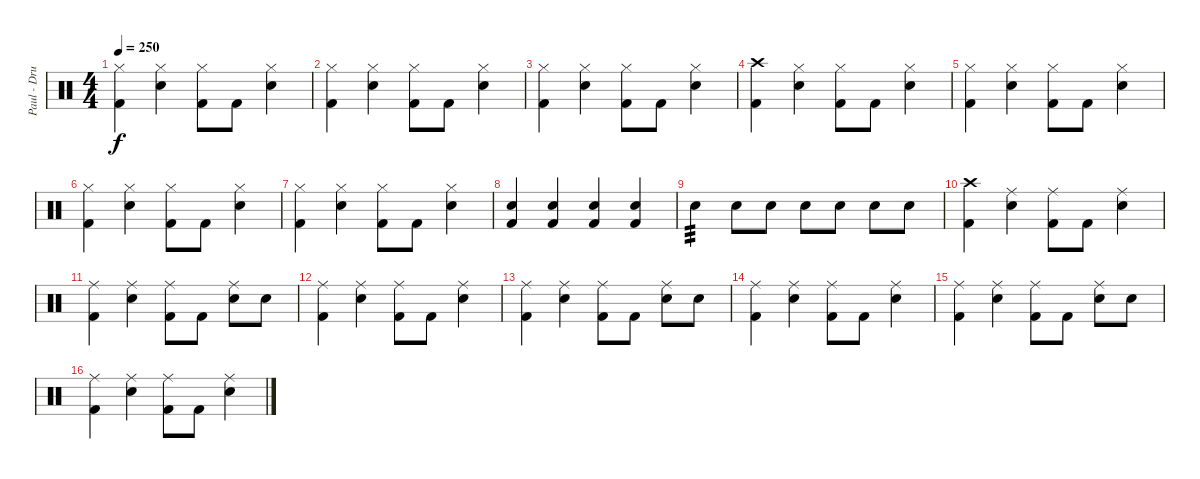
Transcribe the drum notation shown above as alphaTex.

\track ("Paul - Drums" "Paul - Dru") {instrument percussion}
\staff {score}
\articulation defaults
\ts (4 4)
\tempo 250
\clef neutral
\ks c
("Hi-Hat (closed)" "Kick (hit) 2").4{dy f} ("Hi-Hat (closed)" "Electric Snare (hit)").4 ("Hi-Hat (closed)" "Kick (hit) 2").8 "Kick (hit) 2".8 ("Hi-Hat (closed)" "Electric Snare (hit)").4 |
("Hi-Hat (closed)" "Kick (hit) 2").4 ("Hi-Hat (closed)" "Electric Snare (hit)").4 ("Hi-Hat (closed)" "Kick (hit) 2").8 "Kick (hit) 2".8 ("Hi-Hat (closed)" "Electric Snare (hit)").4 |
("Hi-Hat (closed)" "Kick (hit) 2").4 ("Hi-Hat (closed)" "Electric Snare (hit)").4 ("Hi-Hat (closed)" "Kick (hit) 2").8 "Kick (hit) 2".8 ("Hi-Hat (closed)" "Electric Snare (hit)").4 |
("Crash high (hit)" "Kick (hit) 2").4 ("Hi-Hat (closed)" "Electric Snare (hit)").4 ("Hi-Hat (closed)" "Kick (hit) 2").8 "Kick (hit) 2".8 ("Hi-Hat (closed)" "Electric Snare (hit)").4 |
("Hi-Hat (closed)" "Kick (hit) 2").4 ("Hi-Hat (closed)" "Electric Snare (hit)").4 ("Hi-Hat (closed)" "Kick (hit) 2").8 "Kick (hit) 2".8 ("Hi-Hat (closed)" "Electric Snare (hit)").4 |
("Hi-Hat (closed)" "Kick (hit) 2").4 ("Hi-Hat (closed)" "Electric Snare (hit)").4 ("Hi-Hat (closed)" "Kick (hit) 2").8 "Kick (hit) 2".8 ("Hi-Hat (closed)" "Electric Snare (hit)").4 |
("Hi-Hat (closed)" "Kick (hit) 2").4 ("Hi-Hat (closed)" "Electric Snare (hit)").4 ("Hi-Hat (closed)" "Kick (hit) 2").8 "Kick (hit) 2".8 ("Hi-Hat (closed)" "Electric Snare (hit)").4 |
("Electric Snare (hit)" "Kick (hit) 2").4 ("Electric Snare (hit)" "Kick (hit) 2").4 ("Electric Snare (hit)" "Kick (hit) 2").4 ("Electric Snare (hit)" "Kick (hit) 2").4 |
"Electric Snare (hit)".4{tp 3} "Electric Snare (hit)".8 "Electric Snare (hit)".8 "Electric Snare (hit)".8 "Electric Snare (hit)".8 "Electric Snare (hit)".8 "Electric Snare (hit)".8 |
("Crash high (hit)" "Kick (hit) 2").4 ("Ride (middle)" "Electric Snare (hit)").4 ("Ride (middle)" "Kick (hit) 2").8 "Kick (hit) 2".8 ("Ride (middle)" "Electric Snare (hit)").4 |
("Ride (middle)" "Kick (hit) 2").4 ("Ride (middle)" "Electric Snare (hit)").4 ("Ride (middle)" "Kick (hit) 2").8 "Kick (hit) 2".8 ("Ride (middle)" "Electric Snare (hit)").8 "Electric Snare (hit)".8 |
("Ride (middle)" "Kick (hit) 2").4 ("Ride (middle)" "Electric Snare (hit)").4 ("Ride (middle)" "Kick (hit) 2").8 "Kick (hit) 2".8 ("Ride (middle)" "Electric Snare (hit)").4 |
("Ride (middle)" "Kick (hit) 2").4 ("Ride (middle)" "Electric Snare (hit)").4 ("Ride (middle)" "Kick (hit) 2").8 "Kick (hit) 2".8 ("Ride (middle)" "Electric Snare (hit)").8 "Electric Snare (hit)".8 |
("Ride (middle)" "Kick (hit) 2").4 ("Ride (middle)" "Electric Snare (hit)").4 ("Ride (middle)" "Kick (hit) 2").8 "Kick (hit) 2".8 ("Ride (middle)" "Electric Snare (hit)").4 |
("Ride (middle)" "Kick (hit) 2").4 ("Ride (middle)" "Electric Snare (hit)").4 ("Ride (middle)" "Kick (hit) 2").8 "Kick (hit) 2".8 ("Ride (middle)" "Electric Snare (hit)").8 "Electric Snare (hit)".8 |
("Ride (middle)" "Kick (hit) 2").4 ("Ride (middle)" "Electric Snare (hit)").4 ("Ride (middle)" "Kick (hit) 2").8 "Kick (hit) 2".8 ("Ride (middle)" "Electric Snare (hit)").4
